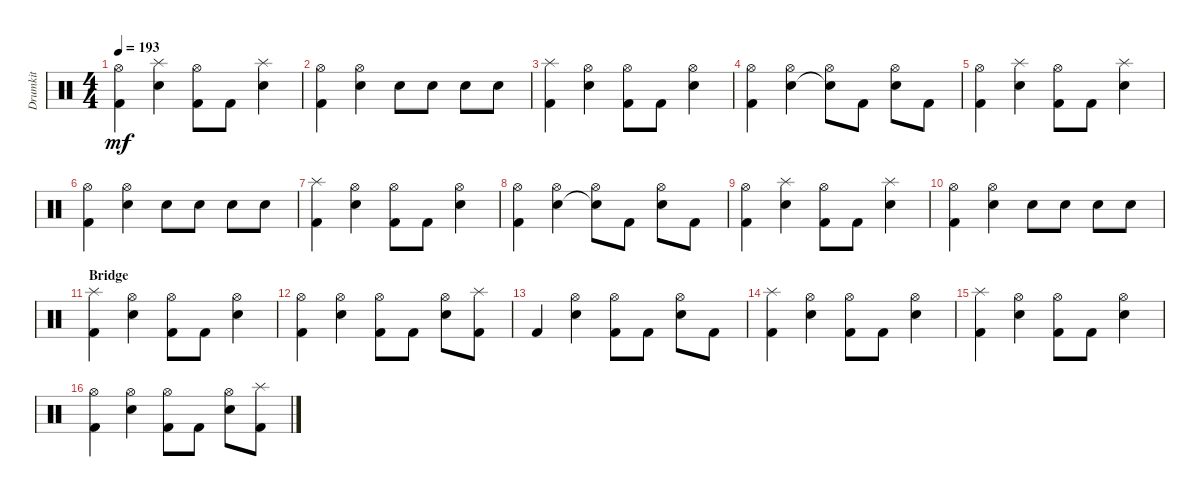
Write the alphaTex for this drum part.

\track ("Drumkit" "Drumkit") {instrument percussion}
\staff {score}
\articulation defaults
\ts (4 4)
\tempo 193
\clef neutral
\ks c
("Kick (hit) 2" "Hi-Hat (open)").4{dy mf} ("Snare (hit) 2" "Splash (hit)").4 ("Kick (hit) 2" "Hi-Hat (open)").8 "Kick (hit) 2".8 ("Snare (hit) 2" "Splash (hit)").4 |
("Kick (hit) 2" "Hi-Hat (open)").4 ("Snare (hit) 2" "Hi-Hat (open)").4 "Snare (hit) 2".8 "Snare (hit) 2".8 "Snare (hit) 2".8 "Snare (hit) 2".8 |
("Kick (hit) 2" "Splash (hit)").4 ("Snare (hit) 2" "Hi-Hat (open)").4 ("Kick (hit) 2" "Hi-Hat (open)").8 "Kick (hit) 2".8 ("Snare (hit) 2" "Hi-Hat (open)").4 |
("Hi-Hat (open)" "Kick (hit) 2").4 ("Hi-Hat (open)" "Snare (hit) 2").4 ("Hi-Hat (open)" "Snare (hit) 2"{t}).8 "Kick (hit) 2".8 ("Hi-Hat (open)" "Snare (hit) 2").8 "Kick (hit) 2".8 |
("Kick (hit) 2" "Hi-Hat (open)").4 ("Snare (hit) 2" "Splash (hit)").4 ("Kick (hit) 2" "Hi-Hat (open)").8 "Kick (hit) 2".8 ("Snare (hit) 2" "Splash (hit)").4 |
("Kick (hit) 2" "Hi-Hat (open)").4 ("Snare (hit) 2" "Hi-Hat (open)").4 "Snare (hit) 2".8 "Snare (hit) 2".8 "Snare (hit) 2".8 "Snare (hit) 2".8 |
("Kick (hit) 2" "Splash (hit)").4 ("Snare (hit) 2" "Hi-Hat (open)").4 ("Kick (hit) 2" "Hi-Hat (open)").8 "Kick (hit) 2".8 ("Snare (hit) 2" "Hi-Hat (open)").4 |
("Hi-Hat (open)" "Kick (hit) 2").4 ("Hi-Hat (open)" "Snare (hit) 2").4 ("Hi-Hat (open)" "Snare (hit) 2"{t}).8 "Kick (hit) 2".8 ("Hi-Hat (open)" "Snare (hit) 2").8 "Kick (hit) 2".8 |
("Kick (hit) 2" "Hi-Hat (open)").4 ("Snare (hit) 2" "Splash (hit)").4 ("Kick (hit) 2" "Hi-Hat (open)").8 "Kick (hit) 2".8 ("Snare (hit) 2" "Splash (hit)").4 |
("Kick (hit) 2" "Hi-Hat (open)").4 ("Snare (hit) 2" "Hi-Hat (open)").4 "Snare (hit) 2".8 "Snare (hit) 2".8 "Snare (hit) 2".8 "Snare (hit) 2".8 |
\section ("" "Bridge")
("Kick (hit) 2" "Splash (hit)").4 ("Snare (hit) 2" "Hi-Hat (open)").4 ("Kick (hit) 2" "Hi-Hat (open)").8 "Kick (hit) 2".8 ("Snare (hit) 2" "Hi-Hat (open)").4 |
("Kick (hit) 2" "Hi-Hat (open)").4 ("Snare (hit) 2" "Hi-Hat (open)").4 ("Kick (hit) 2" "Hi-Hat (open)").8 "Kick (hit) 2".8 ("Snare (hit) 2" "Hi-Hat (open)").8 ("Kick (hit) 2" "Splash (hit)").8 |
"Kick (hit) 2".4 ("Snare (hit) 2" "Hi-Hat (open)").4 ("Kick (hit) 2" "Hi-Hat (open)").8 "Kick (hit) 2".8 ("Snare (hit) 2" "Hi-Hat (open)").8 "Kick (hit) 2".8 |
("Kick (hit) 2" "Splash (hit)").4 ("Snare (hit) 2" "Hi-Hat (open)").4 ("Kick (hit) 2" "Hi-Hat (open)").8 "Kick (hit) 2".8 ("Snare (hit) 2" "Hi-Hat (open)").4 |
("Kick (hit) 2" "Splash (hit)").4 ("Snare (hit) 2" "Hi-Hat (open)").4 ("Kick (hit) 2" "Hi-Hat (open)").8 "Kick (hit) 2".8 ("Snare (hit) 2" "Hi-Hat (open)").4 |
("Kick (hit) 2" "Hi-Hat (open)").4 ("Snare (hit) 2" "Hi-Hat (open)").4 ("Kick (hit) 2" "Hi-Hat (open)").8 "Kick (hit) 2".8 ("Snare (hit) 2" "Hi-Hat (open)").8 ("Kick (hit) 2" "Splash (hit)").8
